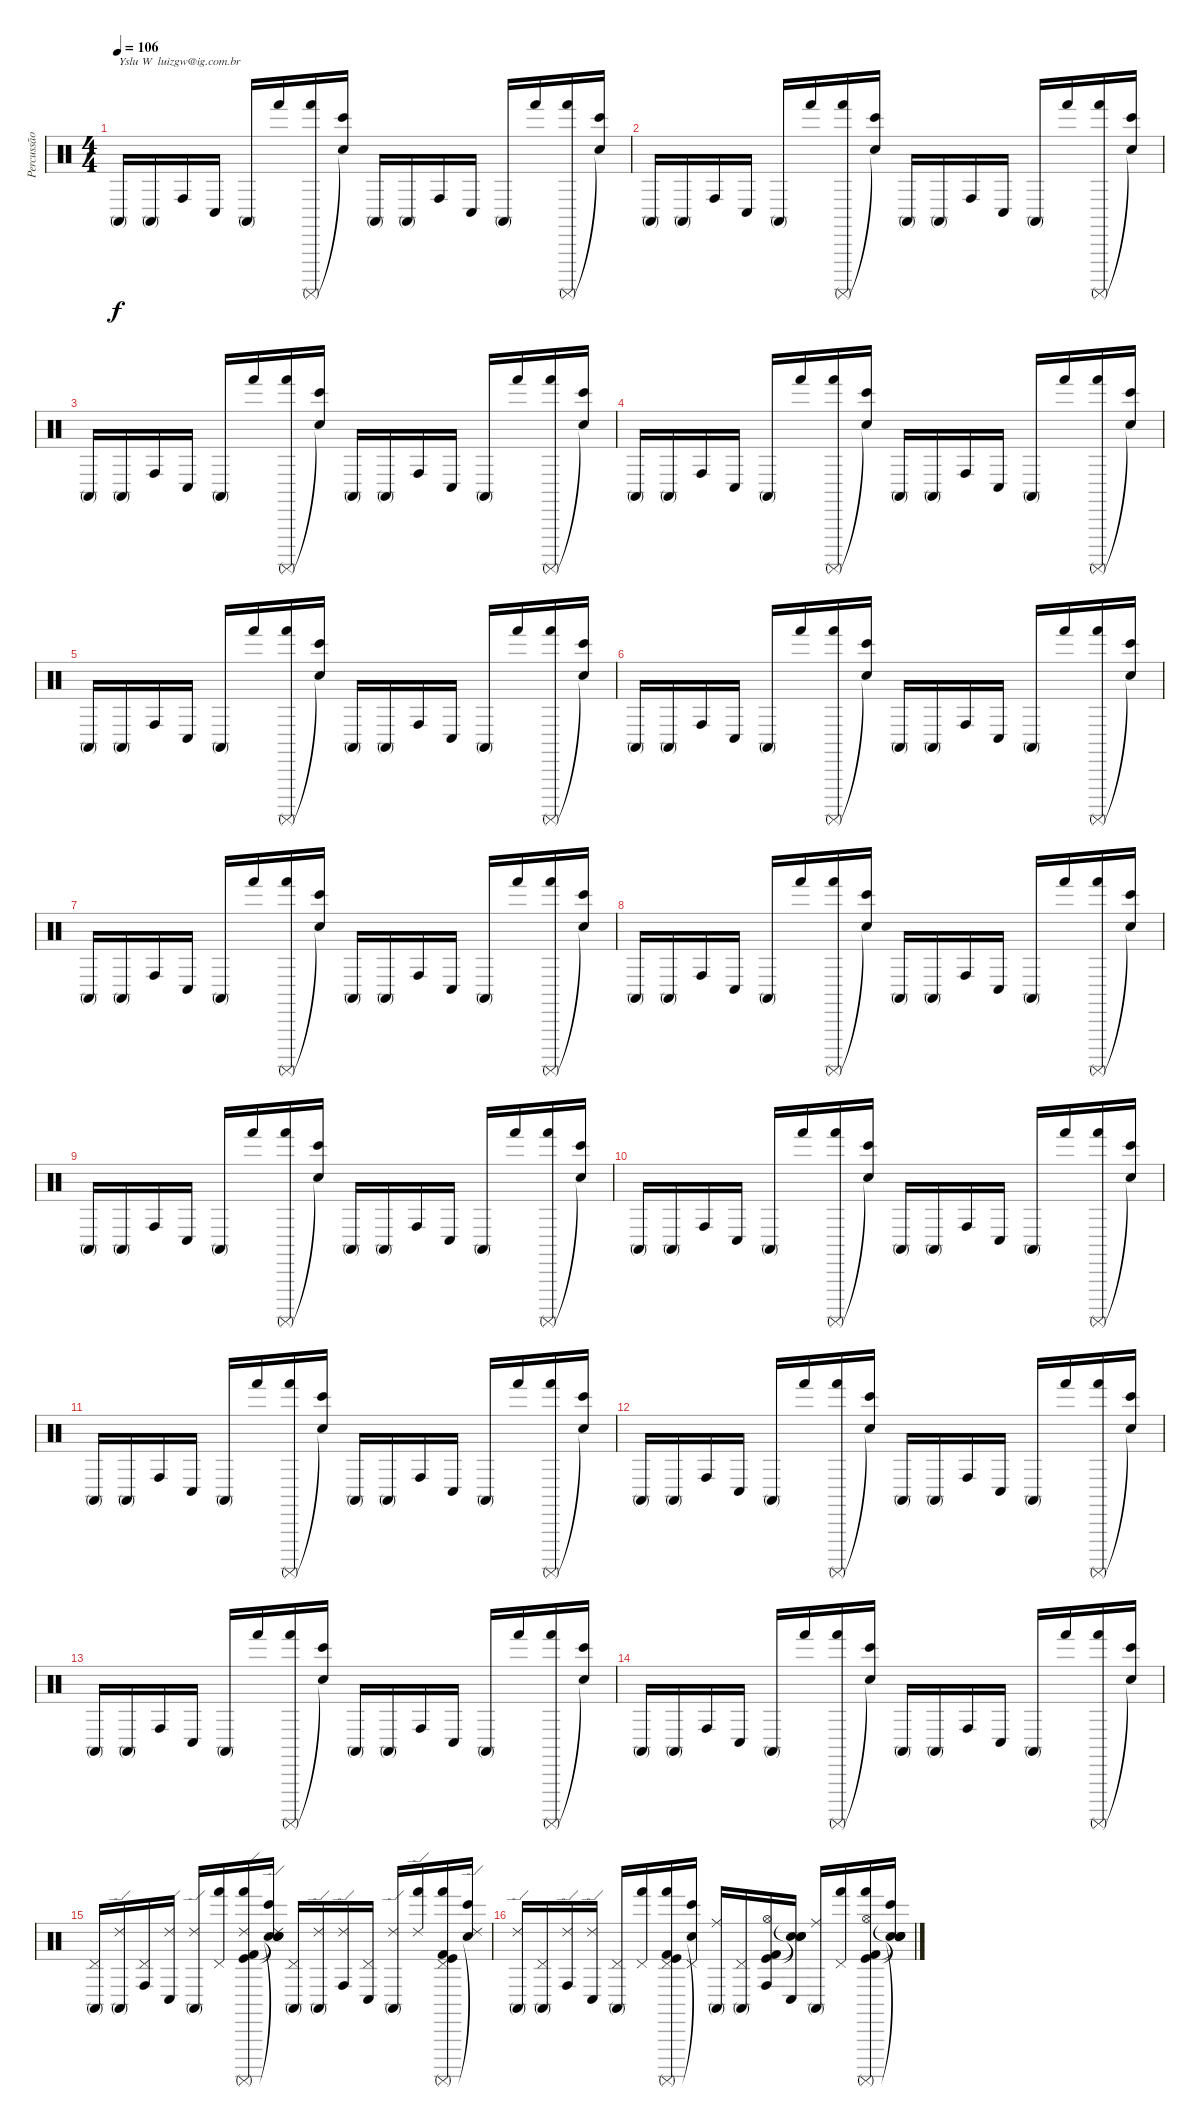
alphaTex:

\track ("Percussão" "Percussão") {instrument percussion}
\staff {score}
\articulation defaults
\ts (4 4)
\tempo 106
\clef neutral
\ks c "Conga high (mute)".16{txt "Yslu W  luizgw@ig.com.br" dy f} "Conga high (mute)".16 "Conga high (hit)".16 "Conga low (hit)".16 "Conga high (mute)".16 "Hand (hit)".16
("Hand (hit)" "Surdo (mute)").16 ("Bongo High (hit)" "Snare (hit)"{t}).16 "Conga high (mute)".16 "Conga high (mute)".16 "Conga high (hit)".16 "Conga low (hit)".16 "Conga high (mute)".16 "Hand (hit)".16 ("Hand (hit)" "Surdo (mute)").16 ("Bongo High (hit)" "Snare (hit)"{t}).16 |
"Conga high (mute)".16 "Conga high (mute)".16 "Conga high (hit)".16 "Conga low (hit)".16 "Conga high (mute)".16 "Hand (hit)".16 ("Hand (hit)" "Surdo (mute)").16 ("Bongo High (hit)" "Snare (hit)"{t}).16 "Conga high (mute)".16 "Conga high (mute)".16 "Conga high (hit)".16 "Conga low (hit)".16 "Conga high (mute)".16 "Hand (hit)".16 ("Hand (hit)" "Surdo (mute)").16 ("Bongo High (hit)" "Snare (hit)"{t}).16 |
"Conga high (mute)".16 "Conga high (mute)".16 "Conga high (hit)".16 "Conga low (hit)".16 "Conga high (mute)".16 "Hand (hit)".16 ("Hand (hit)" "Surdo (mute)").16 ("Bongo High (hit)" "Snare (hit)"{t}).16 "Conga high (mute)".16 "Conga high (mute)".16 "Conga high (hit)".16 "Conga low (hit)".16 "Conga high (mute)".16 "Hand (hit)".16 ("Hand (hit)" "Surdo (mute)").16 ("Bongo High (hit)" "Snare (hit)"{t}).16 |
"Conga high (mute)".16 "Conga high (mute)".16 "Conga high (hit)".16 "Conga low (hit)".16 "Conga high (mute)".16 "Hand (hit)".16 ("Hand (hit)" "Surdo (mute)").16 ("Bongo High (hit)" "Snare (hit)"{t}).16 "Conga high (mute)".16 "Conga high (mute)".16 "Conga high (hit)".16 "Conga low (hit)".16 "Conga high (mute)".16 "Hand (hit)".16 ("Hand (hit)" "Surdo (mute)").16 ("Bongo High (hit)" "Snare (hit)"{t}).16 |
"Conga high (mute)".16 "Conga high (mute)".16 "Conga high (hit)".16 "Conga low (hit)".16 "Conga high (mute)".16 "Hand (hit)".16 ("Hand (hit)" "Surdo (mute)").16 ("Bongo High (hit)" "Snare (hit)"{t}).16 "Conga high (mute)".16 "Conga high (mute)".16 "Conga high (hit)".16 "Conga low (hit)".16 "Conga high (mute)".16 "Hand (hit)".16 ("Hand (hit)" "Surdo (mute)").16 ("Bongo High (hit)" "Snare (hit)"{t}).16 |
"Conga high (mute)".16 "Conga high (mute)".16 "Conga high (hit)".16 "Conga low (hit)".16 "Conga high (mute)".16 "Hand (hit)".16 ("Hand (hit)" "Surdo (mute)").16 ("Bongo High (hit)" "Snare (hit)"{t}).16 "Conga high (mute)".16 "Conga high (mute)".16 "Conga high (hit)".16 "Conga low (hit)".16 "Conga high (mute)".16 "Hand (hit)".16 ("Hand (hit)" "Surdo (mute)").16 ("Bongo High (hit)" "Snare (hit)"{t}).16 |
"Conga high (mute)".16 "Conga high (mute)".16 "Conga high (hit)".16 "Conga low (hit)".16 "Conga high (mute)".16 "Hand (hit)".16 ("Hand (hit)" "Surdo (mute)").16 ("Bongo High (hit)" "Snare (hit)"{t}).16 "Conga high (mute)".16 "Conga high (mute)".16 "Conga high (hit)".16 "Conga low (hit)".16 "Conga high (mute)".16 "Hand (hit)".16 ("Hand (hit)" "Surdo (mute)").16 ("Bongo High (hit)" "Snare (hit)"{t}).16 |
"Conga high (mute)".16 "Conga high (mute)".16 "Conga high (hit)".16 "Conga low (hit)".16 "Conga high (mute)".16 "Hand (hit)".16 ("Hand (hit)" "Surdo (mute)").16 ("Bongo High (hit)" "Snare (hit)"{t}).16 "Conga high (mute)".16 "Conga high (mute)".16 "Conga high (hit)".16 "Conga low (hit)".16 "Conga high (mute)".16 "Hand (hit)".16 ("Hand (hit)" "Surdo (mute)").16 ("Bongo High (hit)" "Snare (hit)"{t}).16 |
"Conga high (mute)".16 "Conga high (mute)".16 "Conga high (hit)".16 "Conga low (hit)".16 "Conga high (mute)".16 "Hand (hit)".16 ("Hand (hit)" "Surdo (mute)").16 ("Bongo High (hit)" "Snare (hit)"{t}).16 "Conga high (mute)".16 "Conga high (mute)".16 "Conga high (hit)".16 "Conga low (hit)".16 "Conga high (mute)".16 "Hand (hit)".16 ("Hand (hit)" "Surdo (mute)").16 ("Bongo High (hit)" "Snare (hit)"{t}).16 |
"Conga high (mute)".16 "Conga high (mute)".16 "Conga high (hit)".16 "Conga low (hit)".16 "Conga high (mute)".16 "Hand (hit)".16 ("Hand (hit)" "Surdo (mute)").16 ("Bongo High (hit)" "Snare (hit)"{t}).16 "Conga high (mute)".16 "Conga high (mute)".16 "Conga high (hit)".16 "Conga low (hit)".16 "Conga high (mute)".16 "Hand (hit)".16 ("Hand (hit)" "Surdo (mute)").16 ("Bongo High (hit)" "Snare (hit)"{t}).16 |
"Conga high (mute)".16 "Conga high (mute)".16 "Conga high (hit)".16 "Conga low (hit)".16 "Conga high (mute)".16 "Hand (hit)".16 ("Hand (hit)" "Surdo (mute)").16 ("Bongo High (hit)" "Snare (hit)"{t}).16 "Conga high (mute)".16 "Conga high (mute)".16 "Conga high (hit)".16 "Conga low (hit)".16 "Conga high (mute)".16 "Hand (hit)".16 ("Hand (hit)" "Surdo (mute)").16 ("Bongo High (hit)" "Snare (hit)"{t}).16 |
"Conga high (mute)".16 "Conga high (mute)".16 "Conga high (hit)".16 "Conga low (hit)".16 "Conga high (mute)".16 "Hand (hit)".16 ("Hand (hit)" "Surdo (mute)").16 ("Bongo High (hit)" "Snare (hit)"{t}).16 "Conga high (mute)".16 "Conga high (mute)".16 "Conga high (hit)".16 "Conga low (hit)".16 "Conga high (mute)".16 "Hand (hit)".16 ("Hand (hit)" "Surdo (mute)").16 ("Bongo High (hit)" "Snare (hit)"{t}).16 |
"Conga high (mute)".16 "Conga high (mute)".16 "Conga high (hit)".16 "Conga low (hit)".16 "Conga high (mute)".16 "Hand (hit)".16 ("Hand (hit)" "Surdo (mute)").16 ("Bongo High (hit)" "Snare (hit)"{t}).16 "Conga high (mute)".16 "Conga high (mute)".16 "Conga high (hit)".16 "Conga low (hit)".16 "Conga high (mute)".16 "Hand (hit)".16 ("Hand (hit)" "Surdo (mute)").16 ("Bongo High (hit)" "Snare (hit)"{t}).16 |
"Conga high (mute)".16 "Conga high (mute)".16 "Conga high (hit)".16 "Conga low (hit)".16 "Conga high (mute)".16 "Hand (hit)".16 ("Hand (hit)" "Surdo (mute)").16 ("Bongo High (hit)" "Snare (hit)"{t}).16 "Conga high (mute)".16 "Conga high (mute)".16 "Conga high (hit)".16 "Conga low (hit)".16 "Conga high (mute)".16 "Hand (hit)".16 ("Hand (hit)" "Surdo (mute)").16 ("Bongo High (hit)" "Snare (hit)"{t}).16 |
("Pedal Hi-Hat (hit)" "Conga high (mute)").16 ("Ride (edge) 2" "Conga high (mute)").16 ("Pedal Hi-Hat (hit)" "Conga high (hit)").16 ("Ride (edge) 2" "Conga low (hit)").16 ("Ride (edge) 2" "Conga high (mute)").16 ("Pedal Hi-Hat (hit)" "Hand (hit)").16 ("Ride (edge) 2" "Hand (hit)" "Surdo (mute)" "Kick (hit) 2" "Kick (hit)").16 ("Ride (edge) 2" "Bongo High (hit)" "Snare (hit)"{t} "Snare (hit)"{t} "Snare (hit)"{t}).16 ("Pedal Hi-Hat (hit)" "Conga high (mute)").16 ("Ride (edge) 2" "Conga high (mute)").16 ("Ride (edge) 2" "Conga high (hit)").16 ("Pedal Hi-Hat (hit)" "Conga low (hit)").16 ("Ride (edge) 2" "Conga high (mute)").16 ("Ride (edge) 2" "Hand (hit)").16 ("Pedal Hi-Hat (hit)" "Hand (hit)" "Surdo (mute)" "Kick (hit)" "Kick (hit) 2").16 ("Ride (edge) 2" "Bongo High (hit)" "Snare (hit)"{t}).16 |
("Ride (edge) 2" "Conga high (mute)").16 ("Pedal Hi-Hat (hit)" "Conga high (mute)").16 ("Ride (edge) 2" "Conga high (hit)").16 ("Ride (edge) 2" "Conga low (hit)").16 ("Pedal Hi-Hat (hit)" "Conga high (mute)").16 ("Pedal Hi-Hat (hit)" "Hand (hit)").16 ("Pedal Hi-Hat (hit)" "Hand (hit)" "Surdo (mute)" "Kick (hit)" "Kick (hit) 2").16 ("Pedal Hi-Hat (hit)" "Bongo High (hit)" "Snare (hit)"{t}).16 ("Ride (middle)" "Conga high (mute)").16 ("Pedal Hi-Hat (hit)" "Conga high (mute)").16 ("Hi-Hat (open)" "Conga high (hit)" "Kick (hit) 2" "Kick (hit)").16 ("Snare (hit)"{t} "Conga low (hit)" "Snare (hit)"{t} "Snare (hit)"{t}).16 ("Ride (middle)" "Conga high (mute)").16 ("Pedal Hi-Hat (hit)" "Hand (hit)").16 ("Hi-Hat (open)" "Hand (hit)" "Surdo (mute)" "Kick (hit) 2" "Kick (hit)").16 ("Snare (hit)"{t} "Bongo High (hit)" "Snare (hit)"{t} "Snare (hit)"{t} "Snare (hit)"{t}).16
